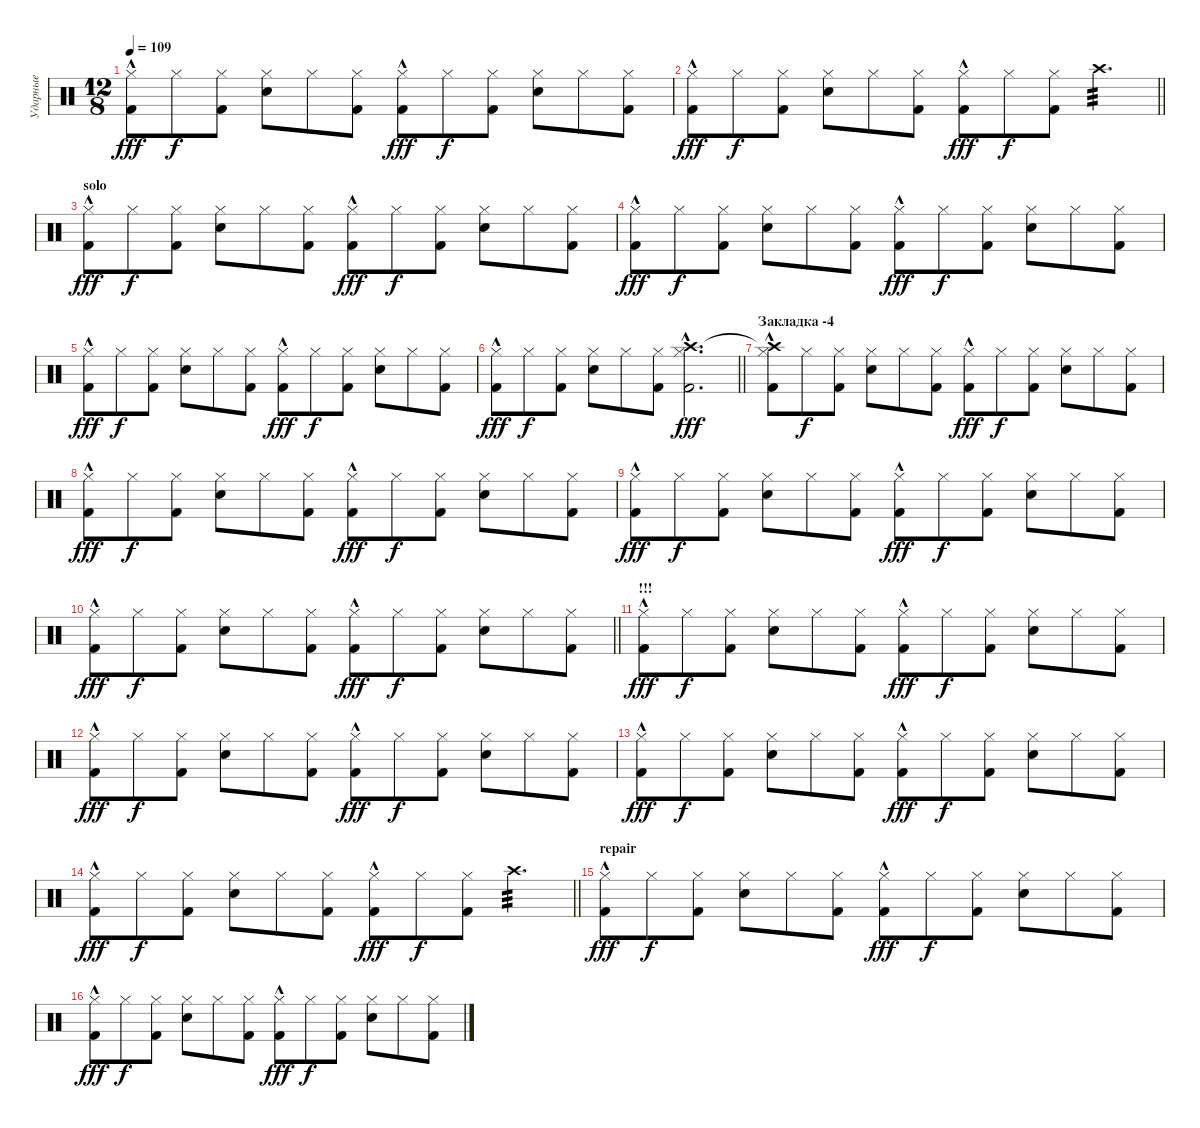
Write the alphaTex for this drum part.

\track ("Ударные" "Ударные") {instrument percussion}
\staff {score}
\articulation defaults
\ts (12 8)
\tempo 109
\clef neutral
\ks c
("Hi-Hat (closed)" "Kick (hit) 2"{hac}).8{dy fff} "Hi-Hat (closed)".8{dy f} ("Hi-Hat (closed)" "Kick (hit) 2").8 ("Hi-Hat (closed)" "Electric Snare (hit)").8 "Hi-Hat (closed)".8 ("Hi-Hat (closed)" "Kick (hit) 2").8 ("Hi-Hat (closed)" "Kick (hit) 2"{hac}).8{dy fff} "Hi-Hat (closed)".8{dy f} ("Hi-Hat (closed)" "Kick (hit) 2").8 ("Hi-Hat (closed)" "Electric Snare (hit)").8 "Hi-Hat (closed)".8 ("Hi-Hat (closed)" "Kick (hit) 2").8 |
\barLineRight lightlight
("Hi-Hat (closed)" "Kick (hit) 2"{hac}).8{dy fff} "Hi-Hat (closed)".8{dy f} ("Hi-Hat (closed)" "Kick (hit) 2").8 ("Hi-Hat (closed)" "Electric Snare (hit)").8 "Hi-Hat (closed)".8 ("Hi-Hat (closed)" "Kick (hit) 2").8 ("Hi-Hat (closed)" "Kick (hit) 2"{hac}).8{dy fff} "Hi-Hat (closed)".8{dy f} ("Hi-Hat (closed)" "Kick (hit) 2").8{volume 0} "Crash high (hit)".4{d tp 3 volume 9} |
\section ("" "solo")
("Hi-Hat (closed)" "Kick (hit) 2"{hac}).8{dy fff} "Hi-Hat (closed)".8{dy f} ("Hi-Hat (closed)" "Kick (hit) 2").8 ("Hi-Hat (closed)" "Electric Snare (hit)").8 "Hi-Hat (closed)".8 ("Hi-Hat (closed)" "Kick (hit) 2").8 ("Hi-Hat (closed)" "Kick (hit) 2"{hac}).8{dy fff} "Hi-Hat (closed)".8{dy f} ("Hi-Hat (closed)" "Kick (hit) 2").8 ("Hi-Hat (closed)" "Electric Snare (hit)").8 "Hi-Hat (closed)".8 ("Hi-Hat (closed)" "Kick (hit) 2").8 |
("Hi-Hat (closed)" "Kick (hit) 2"{hac}).8{dy fff} "Hi-Hat (closed)".8{dy f} ("Hi-Hat (closed)" "Kick (hit) 2").8 ("Hi-Hat (closed)" "Electric Snare (hit)").8 "Hi-Hat (closed)".8 ("Hi-Hat (closed)" "Kick (hit) 2").8 ("Hi-Hat (closed)" "Kick (hit) 2"{hac}).8{dy fff} "Hi-Hat (closed)".8{dy f} ("Hi-Hat (closed)" "Kick (hit) 2").8 ("Hi-Hat (closed)" "Electric Snare (hit)").8 "Hi-Hat (closed)".8 ("Hi-Hat (closed)" "Kick (hit) 2").8 |
("Hi-Hat (closed)" "Kick (hit) 2"{hac}).8{dy fff} "Hi-Hat (closed)".8{dy f} ("Hi-Hat (closed)" "Kick (hit) 2").8 ("Hi-Hat (closed)" "Electric Snare (hit)").8 "Hi-Hat (closed)".8 ("Hi-Hat (closed)" "Kick (hit) 2").8 ("Hi-Hat (closed)" "Kick (hit) 2"{hac}).8{dy fff} "Hi-Hat (closed)".8{dy f} ("Hi-Hat (closed)" "Kick (hit) 2").8 ("Hi-Hat (closed)" "Electric Snare (hit)").8 "Hi-Hat (closed)".8 ("Hi-Hat (closed)" "Kick (hit) 2").8 |
\barLineRight lightlight
("Hi-Hat (closed)" "Kick (hit) 2"{hac}).8{dy fff} "Hi-Hat (closed)".8{dy f} ("Hi-Hat (closed)" "Kick (hit) 2").8 ("Hi-Hat (closed)" "Electric Snare (hit)").8 "Hi-Hat (closed)".8 ("Hi-Hat (closed)" "Kick (hit) 2").8 ("Hi-Hat (closed)" "Kick (hit) 2"{hac} "Crash high (hit)").2{d dy fff} |
\section ("" "Закладка -4")
("Hi-Hat (closed)" "Kick (hit) 2"{hac} "Crash high (hit)"{t}).8 "Hi-Hat (closed)".8{dy f} ("Hi-Hat (closed)" "Kick (hit) 2").8 ("Hi-Hat (closed)" "Electric Snare (hit)").8 "Hi-Hat (closed)".8 ("Hi-Hat (closed)" "Kick (hit) 2").8 ("Hi-Hat (closed)" "Kick (hit) 2"{hac}).8{dy fff} "Hi-Hat (closed)".8{dy f} ("Hi-Hat (closed)" "Kick (hit) 2").8 ("Hi-Hat (closed)" "Electric Snare (hit)").8 "Hi-Hat (closed)".8 ("Hi-Hat (closed)" "Kick (hit) 2").8 |
("Hi-Hat (closed)" "Kick (hit) 2"{hac}).8{dy fff} "Hi-Hat (closed)".8{dy f} ("Hi-Hat (closed)" "Kick (hit) 2").8 ("Hi-Hat (closed)" "Electric Snare (hit)").8 "Hi-Hat (closed)".8 ("Hi-Hat (closed)" "Kick (hit) 2").8 ("Hi-Hat (closed)" "Kick (hit) 2"{hac}).8{dy fff} "Hi-Hat (closed)".8{dy f} ("Hi-Hat (closed)" "Kick (hit) 2").8 ("Hi-Hat (closed)" "Electric Snare (hit)").8 "Hi-Hat (closed)".8 ("Hi-Hat (closed)" "Kick (hit) 2").8 |
("Hi-Hat (closed)" "Kick (hit) 2"{hac}).8{dy fff} "Hi-Hat (closed)".8{dy f} ("Hi-Hat (closed)" "Kick (hit) 2").8 ("Hi-Hat (closed)" "Electric Snare (hit)").8 "Hi-Hat (closed)".8 ("Hi-Hat (closed)" "Kick (hit) 2").8 ("Hi-Hat (closed)" "Kick (hit) 2"{hac}).8{dy fff} "Hi-Hat (closed)".8{dy f} ("Hi-Hat (closed)" "Kick (hit) 2").8 ("Hi-Hat (closed)" "Electric Snare (hit)").8 "Hi-Hat (closed)".8 ("Hi-Hat (closed)" "Kick (hit) 2").8 |
\barLineRight lightlight
("Hi-Hat (closed)" "Kick (hit) 2"{hac}).8{dy fff} "Hi-Hat (closed)".8{dy f} ("Hi-Hat (closed)" "Kick (hit) 2").8 ("Hi-Hat (closed)" "Electric Snare (hit)").8 "Hi-Hat (closed)".8 ("Hi-Hat (closed)" "Kick (hit) 2").8 ("Hi-Hat (closed)" "Kick (hit) 2"{hac}).8{dy fff} "Hi-Hat (closed)".8{dy f} ("Hi-Hat (closed)" "Kick (hit) 2").8 ("Hi-Hat (closed)" "Electric Snare (hit)").8 "Hi-Hat (closed)".8 ("Hi-Hat (closed)" "Kick (hit) 2").8 |
\section ("" "!!!")
("Hi-Hat (closed)" "Kick (hit) 2"{hac}).8{dy fff} "Hi-Hat (closed)".8{dy f} ("Hi-Hat (closed)" "Kick (hit) 2").8 ("Hi-Hat (closed)" "Electric Snare (hit)").8 "Hi-Hat (closed)".8 ("Hi-Hat (closed)" "Kick (hit) 2").8 ("Hi-Hat (closed)" "Kick (hit) 2"{hac}).8{dy fff} "Hi-Hat (closed)".8{dy f} ("Hi-Hat (closed)" "Kick (hit) 2").8 ("Hi-Hat (closed)" "Electric Snare (hit)").8 "Hi-Hat (closed)".8 ("Hi-Hat (closed)" "Kick (hit) 2").8 |
("Hi-Hat (closed)" "Kick (hit) 2"{hac}).8{dy fff} "Hi-Hat (closed)".8{dy f} ("Hi-Hat (closed)" "Kick (hit) 2").8 ("Hi-Hat (closed)" "Electric Snare (hit)").8 "Hi-Hat (closed)".8 ("Hi-Hat (closed)" "Kick (hit) 2").8 ("Hi-Hat (closed)" "Kick (hit) 2"{hac}).8{dy fff} "Hi-Hat (closed)".8{dy f} ("Hi-Hat (closed)" "Kick (hit) 2").8 ("Hi-Hat (closed)" "Electric Snare (hit)").8 "Hi-Hat (closed)".8 ("Hi-Hat (closed)" "Kick (hit) 2").8 |
("Hi-Hat (closed)" "Kick (hit) 2"{hac}).8{dy fff} "Hi-Hat (closed)".8{dy f} ("Hi-Hat (closed)" "Kick (hit) 2").8 ("Hi-Hat (closed)" "Electric Snare (hit)").8 "Hi-Hat (closed)".8 ("Hi-Hat (closed)" "Kick (hit) 2").8 ("Hi-Hat (closed)" "Kick (hit) 2"{hac}).8{dy fff} "Hi-Hat (closed)".8{dy f} ("Hi-Hat (closed)" "Kick (hit) 2").8 ("Hi-Hat (closed)" "Electric Snare (hit)").8 "Hi-Hat (closed)".8 ("Hi-Hat (closed)" "Kick (hit) 2").8 |
\barLineRight lightlight
("Hi-Hat (closed)" "Kick (hit) 2"{hac}).8{dy fff} "Hi-Hat (closed)".8{dy f} ("Hi-Hat (closed)" "Kick (hit) 2").8 ("Hi-Hat (closed)" "Electric Snare (hit)").8 "Hi-Hat (closed)".8 ("Hi-Hat (closed)" "Kick (hit) 2").8 ("Hi-Hat (closed)" "Kick (hit) 2"{hac}).8{dy fff} "Hi-Hat (closed)".8{dy f} ("Hi-Hat (closed)" "Kick (hit) 2").8{volume 0} "Crash high (hit)".4{d tp 3 volume 9} |
\section ("" "repair")
("Hi-Hat (closed)" "Kick (hit) 2"{hac}).8{dy fff} "Hi-Hat (closed)".8{dy f} ("Hi-Hat (closed)" "Kick (hit) 2").8 ("Hi-Hat (closed)" "Electric Snare (hit)").8 "Hi-Hat (closed)".8 ("Hi-Hat (closed)" "Kick (hit) 2").8 ("Hi-Hat (closed)" "Kick (hit) 2"{hac}).8{dy fff} "Hi-Hat (closed)".8{dy f} ("Hi-Hat (closed)" "Kick (hit) 2").8 ("Hi-Hat (closed)" "Electric Snare (hit)").8 "Hi-Hat (closed)".8 ("Hi-Hat (closed)" "Kick (hit) 2").8 |
("Hi-Hat (closed)" "Kick (hit) 2"{hac}).8{dy fff} "Hi-Hat (closed)".8{dy f} ("Hi-Hat (closed)" "Kick (hit) 2").8 ("Hi-Hat (closed)" "Electric Snare (hit)").8 "Hi-Hat (closed)".8 ("Hi-Hat (closed)" "Kick (hit) 2").8 ("Hi-Hat (closed)" "Kick (hit) 2"{hac}).8{dy fff} "Hi-Hat (closed)".8{dy f} ("Hi-Hat (closed)" "Kick (hit) 2").8 ("Hi-Hat (closed)" "Electric Snare (hit)").8 "Hi-Hat (closed)".8 ("Hi-Hat (closed)" "Kick (hit) 2").8
